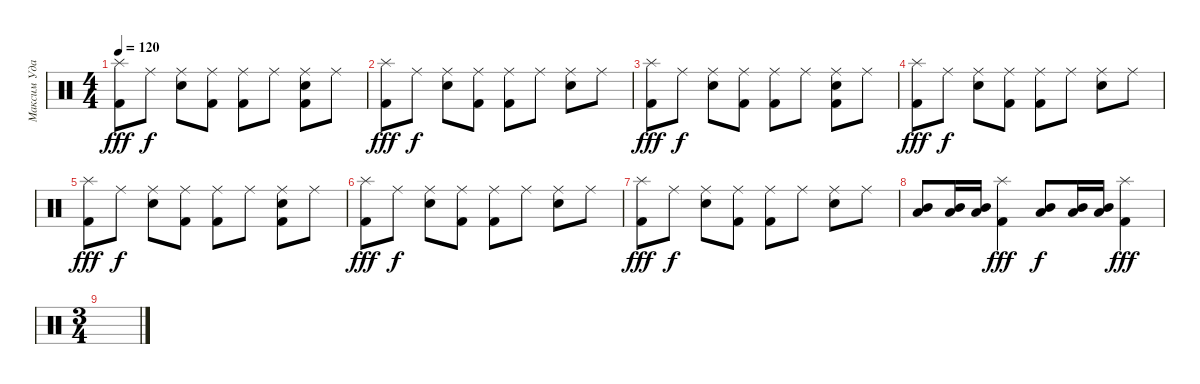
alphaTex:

\track ("Максим Удалов" "Максим Уда") {instrument percussion}
\staff {score}
\articulation defaults
\ts (4 4)
\tempo 120
\clef neutral
\ks c
("Kick (hit) 2" "Splash (hit)").8{dy fff} "Ride (middle)".8{dy f} ("Ride (middle)" "Electric Snare (hit)").8 ("Kick (hit) 2" "Ride (middle)").8 ("Kick (hit) 2" "Ride (middle)").8 "Ride (middle)".8 ("Kick (hit) 2" "Ride (middle)" "Electric Snare (hit)").8 "Ride (middle)".8 |
("Kick (hit) 2" "Splash (hit)").8{dy fff} "Ride (middle)".8{dy f} ("Ride (middle)" "Electric Snare (hit)").8 ("Kick (hit) 2" "Ride (middle)").8 ("Kick (hit) 2" "Ride (middle)").8 "Ride (middle)".8 ("Ride (middle)" "Electric Snare (hit)").8 "Ride (middle)".8 |
("Kick (hit) 2" "Splash (hit)").8{dy fff} "Ride (middle)".8{dy f} ("Ride (middle)" "Electric Snare (hit)").8 ("Kick (hit) 2" "Ride (middle)").8 ("Kick (hit) 2" "Ride (middle)").8 "Ride (middle)".8 ("Kick (hit) 2" "Ride (middle)" "Electric Snare (hit)").8 "Ride (middle)".8 |
("Kick (hit) 2" "Splash (hit)").8{dy fff} "Ride (middle)".8{dy f} ("Ride (middle)" "Electric Snare (hit)").8 ("Kick (hit) 2" "Ride (middle)").8 ("Kick (hit) 2" "Ride (middle)").8 "Ride (middle)".8 ("Ride (middle)" "Electric Snare (hit)").8 "Ride (middle)".8 |
("Kick (hit) 2" "Splash (hit)").8{dy fff} "Ride (middle)".8{dy f} ("Ride (middle)" "Electric Snare (hit)").8 ("Kick (hit) 2" "Ride (middle)").8 ("Kick (hit) 2" "Ride (middle)").8 "Ride (middle)".8 ("Kick (hit) 2" "Ride (middle)" "Electric Snare (hit)").8 "Ride (middle)".8 |
("Kick (hit) 2" "Splash (hit)").8{dy fff} "Ride (middle)".8{dy f} ("Ride (middle)" "Electric Snare (hit)").8 ("Kick (hit) 2" "Ride (middle)").8 ("Kick (hit) 2" "Ride (middle)").8 "Ride (middle)".8 ("Ride (middle)" "Electric Snare (hit)").8 "Ride (middle)".8 |
("Kick (hit) 2" "Splash (hit)").8{dy fff} "Ride (middle)".8{dy f} ("Ride (middle)" "Electric Snare (hit)").8 ("Kick (hit) 2" "Ride (middle)").8 ("Kick (hit) 2" "Ride (middle)").8 "Ride (middle)".8 ("Ride (middle)" "Electric Snare (hit)").8 "Ride (middle)".8 |
("Low Tom (hit)" "Mid Tom (hit)").8 ("Mid Tom (hit)" "Low Tom (hit)").16 ("Mid Tom (hit)" "Low Tom (hit)").16 ("Kick (hit) 2" "Splash (hit)").4{dy fff} ("Low Tom (hit)" "Mid Tom (hit)").8{dy f} ("Mid Tom (hit)" "Low Tom (hit)").16 ("Low Tom (hit)" "Mid Tom (hit)").16 ("Kick (hit) 2" "Splash (hit)").4{dy fff} |
\ts (3 4)
